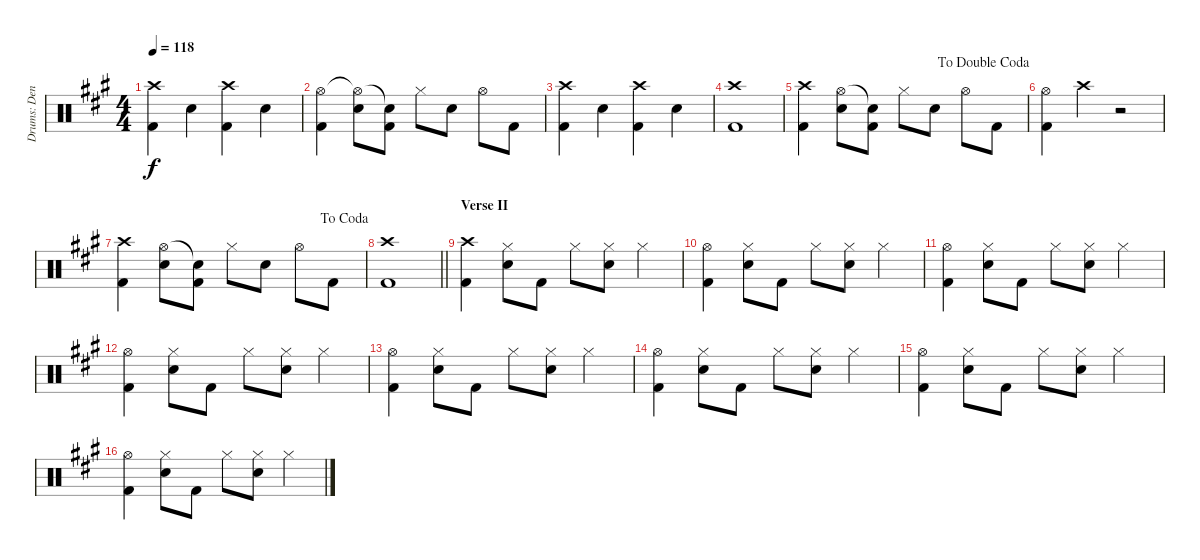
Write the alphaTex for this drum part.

\track ("Drums: Denny" "Drums: Den") {instrument percussion}
\staff {score}
\articulation defaults
\ts (4 4)
\tempo 118
\clef neutral
\ks a
("Crash high (hit)" "Kick (hit) 2").4{dy f} "Electric Snare (hit)".4 ("Crash high (hit)" "Kick (hit) 2").4 "Electric Snare (hit)".4 |
("Hi-Hat (open)" "Kick (hit) 2").4 ("Hi-Hat (open)"{t} "Electric Snare (hit)").8 ("Snare (hit)"{t} "Kick (hit) 2").8 "Hi-Hat (closed)".8 "Electric Snare (hit)".8 "Hi-Hat (open)".8 "Kick (hit) 2".8 |
("Crash high (hit)" "Kick (hit) 2").4 "Electric Snare (hit)".4 ("Crash high (hit)" "Kick (hit) 2").4 "Electric Snare (hit)".4 |
("Crash high (hit)" "Kick (hit) 2").1 |
\jump dadoublecoda
("Crash high (hit)" "Kick (hit) 2").4 ("Hi-Hat (open)" "Electric Snare (hit)").8 ("Snare (hit)"{t} "Kick (hit) 2").8 "Hi-Hat (closed)".8 "Electric Snare (hit)".8 "Hi-Hat (open)".8 "Kick (hit) 2".8 |
("Hi-Hat (open)" "Kick (hit) 2").4 "Crash high (hit)".4 r.2 |
\jump dacoda
("Crash high (hit)" "Kick (hit) 2").4 ("Hi-Hat (open)" "Electric Snare (hit)").8 ("Snare (hit)"{t} "Kick (hit) 2").8 "Hi-Hat (closed)".8 "Electric Snare (hit)".8 "Hi-Hat (open)".8 "Kick (hit) 2".8 |
\barLineRight lightlight
("Crash high (hit)" "Kick (hit) 2").1 |
\section ("" "Verse II")
("Crash high (hit)" "Kick (hit) 2").4 ("Hi-Hat (closed)" "Electric Snare (hit)").8 "Kick (hit) 2".8 "Hi-Hat (closed)".8 ("Hi-Hat (closed)" "Electric Snare (hit)").8 "Hi-Hat (closed)".4 |
("Hi-Hat (open)" "Kick (hit) 2").4 ("Hi-Hat (closed)" "Electric Snare (hit)").8 "Kick (hit) 2".8 "Hi-Hat (closed)".8 ("Hi-Hat (closed)" "Electric Snare (hit)").8 "Hi-Hat (closed)".4 |
("Hi-Hat (open)" "Kick (hit) 2").4 ("Hi-Hat (closed)" "Electric Snare (hit)").8 "Kick (hit) 2".8 "Hi-Hat (closed)".8 ("Hi-Hat (closed)" "Electric Snare (hit)").8 "Hi-Hat (closed)".4 |
("Hi-Hat (open)" "Kick (hit) 2").4 ("Hi-Hat (closed)" "Electric Snare (hit)").8 "Kick (hit) 2".8 "Hi-Hat (closed)".8 ("Hi-Hat (closed)" "Electric Snare (hit)").8 "Hi-Hat (closed)".4 |
("Hi-Hat (open)" "Kick (hit) 2").4 ("Hi-Hat (closed)" "Electric Snare (hit)").8 "Kick (hit) 2".8 "Hi-Hat (closed)".8 ("Hi-Hat (closed)" "Electric Snare (hit)").8 "Hi-Hat (closed)".4 |
("Hi-Hat (open)" "Kick (hit) 2").4 ("Hi-Hat (closed)" "Electric Snare (hit)").8 "Kick (hit) 2".8 "Hi-Hat (closed)".8 ("Hi-Hat (closed)" "Electric Snare (hit)").8 "Hi-Hat (closed)".4 |
("Hi-Hat (open)" "Kick (hit) 2").4 ("Hi-Hat (closed)" "Electric Snare (hit)").8 "Kick (hit) 2".8 "Hi-Hat (closed)".8 ("Hi-Hat (closed)" "Electric Snare (hit)").8 "Hi-Hat (closed)".4 |
("Hi-Hat (open)" "Kick (hit) 2").4 ("Hi-Hat (closed)" "Electric Snare (hit)").8 "Kick (hit) 2".8 "Hi-Hat (closed)".8 ("Hi-Hat (closed)" "Electric Snare (hit)").8 "Hi-Hat (closed)".4
